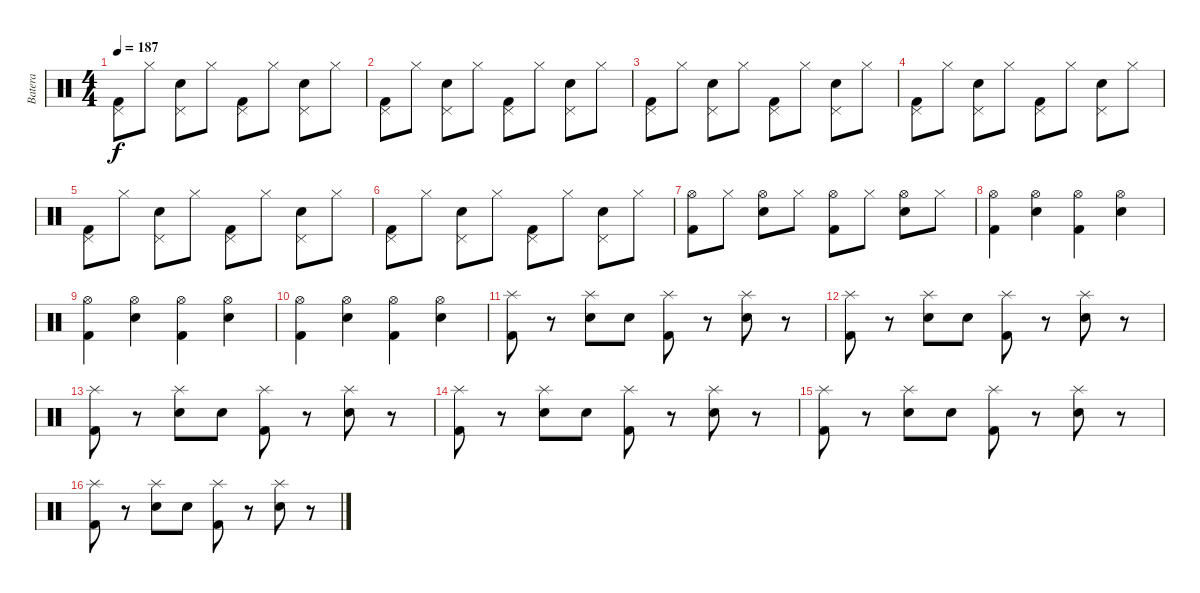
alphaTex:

\track ("Batera" "Batera") {instrument percussion}
\staff {score}
\articulation defaults
\ts (4 4)
\tempo 187
\clef neutral
\ks c
("Pedal Hi-Hat (hit)" "Kick (hit) 2").8{dy f} "Hi-Hat (closed)".8 ("Pedal Hi-Hat (hit)" "Electric Snare (hit)").8 "Hi-Hat (closed)".8 ("Pedal Hi-Hat (hit)" "Kick (hit) 2").8 "Hi-Hat (closed)".8 ("Pedal Hi-Hat (hit)" "Electric Snare (hit)").8 "Hi-Hat (closed)".8 |
("Pedal Hi-Hat (hit)" "Kick (hit) 2").8 "Hi-Hat (closed)".8 ("Pedal Hi-Hat (hit)" "Electric Snare (hit)").8 "Hi-Hat (closed)".8 ("Pedal Hi-Hat (hit)" "Kick (hit) 2").8 "Hi-Hat (closed)".8 ("Pedal Hi-Hat (hit)" "Electric Snare (hit)").8 "Hi-Hat (closed)".8 |
("Pedal Hi-Hat (hit)" "Kick (hit) 2").8 "Hi-Hat (closed)".8 ("Pedal Hi-Hat (hit)" "Electric Snare (hit)").8 "Hi-Hat (closed)".8 ("Pedal Hi-Hat (hit)" "Kick (hit) 2").8 "Hi-Hat (closed)".8 ("Pedal Hi-Hat (hit)" "Electric Snare (hit)").8 "Hi-Hat (closed)".8 |
("Pedal Hi-Hat (hit)" "Kick (hit) 2").8 "Hi-Hat (closed)".8 ("Pedal Hi-Hat (hit)" "Electric Snare (hit)").8 "Hi-Hat (closed)".8 ("Pedal Hi-Hat (hit)" "Kick (hit) 2").8 "Hi-Hat (closed)".8 ("Pedal Hi-Hat (hit)" "Electric Snare (hit)").8 "Hi-Hat (closed)".8 |
("Pedal Hi-Hat (hit)" "Kick (hit) 2").8 "Hi-Hat (closed)".8 ("Pedal Hi-Hat (hit)" "Electric Snare (hit)").8 "Hi-Hat (closed)".8 ("Pedal Hi-Hat (hit)" "Kick (hit) 2").8 "Hi-Hat (closed)".8 ("Pedal Hi-Hat (hit)" "Electric Snare (hit)").8 "Hi-Hat (closed)".8 |
("Pedal Hi-Hat (hit)" "Kick (hit) 2").8 "Hi-Hat (closed)".8 ("Pedal Hi-Hat (hit)" "Electric Snare (hit)").8 "Hi-Hat (closed)".8 ("Pedal Hi-Hat (hit)" "Kick (hit) 2").8 "Hi-Hat (closed)".8 ("Pedal Hi-Hat (hit)" "Electric Snare (hit)").8 "Hi-Hat (closed)".8 |
("Hi-Hat (open)" "Kick (hit) 2").8 "Hi-Hat (closed)".8 ("Hi-Hat (open)" "Electric Snare (hit)").8 "Hi-Hat (closed)".8 ("Hi-Hat (open)" "Kick (hit) 2").8 "Hi-Hat (closed)".8 ("Hi-Hat (open)" "Electric Snare (hit)").8 "Hi-Hat (closed)".8 |
("Hi-Hat (open)" "Kick (hit) 2").4 ("Hi-Hat (open)" "Electric Snare (hit)").4 ("Hi-Hat (open)" "Kick (hit) 2").4 ("Hi-Hat (open)" "Electric Snare (hit)").4 |
("Hi-Hat (open)" "Kick (hit) 2").4 ("Hi-Hat (open)" "Electric Snare (hit)").4 ("Hi-Hat (open)" "Kick (hit) 2").4 ("Hi-Hat (open)" "Electric Snare (hit)").4 |
("Hi-Hat (open)" "Kick (hit) 2").4 ("Hi-Hat (open)" "Electric Snare (hit)").4 ("Hi-Hat (open)" "Kick (hit) 2").4 ("Hi-Hat (open)" "Electric Snare (hit)").4 |
("Splash (hit)" "Kick (hit) 2").8 r.8 ("Splash (hit)" "Electric Snare (hit)").8 "Electric Snare (hit)".8 ("Splash (hit)" "Kick (hit) 2").8 r.8 ("Splash (hit)" "Electric Snare (hit)").8 r.8 |
("Splash (hit)" "Kick (hit) 2").8 r.8 ("Splash (hit)" "Electric Snare (hit)").8 "Electric Snare (hit)".8 ("Splash (hit)" "Kick (hit) 2").8 r.8 ("Splash (hit)" "Electric Snare (hit)").8 r.8 |
("Splash (hit)" "Kick (hit) 2").8 r.8 ("Splash (hit)" "Electric Snare (hit)").8 "Electric Snare (hit)".8 ("Splash (hit)" "Kick (hit) 2").8 r.8 ("Splash (hit)" "Electric Snare (hit)").8 r.8 |
("Splash (hit)" "Kick (hit) 2").8 r.8 ("Splash (hit)" "Electric Snare (hit)").8 "Electric Snare (hit)".8 ("Splash (hit)" "Kick (hit) 2").8 r.8 ("Splash (hit)" "Electric Snare (hit)").8 r.8 |
("Splash (hit)" "Kick (hit) 2").8 r.8 ("Splash (hit)" "Electric Snare (hit)").8 "Electric Snare (hit)".8 ("Splash (hit)" "Kick (hit) 2").8 r.8 ("Splash (hit)" "Electric Snare (hit)").8 r.8 |
("Splash (hit)" "Kick (hit) 2").8 r.8 ("Splash (hit)" "Electric Snare (hit)").8 "Electric Snare (hit)".8 ("Splash (hit)" "Kick (hit) 2").8 r.8 ("Splash (hit)" "Electric Snare (hit)").8 r.8
